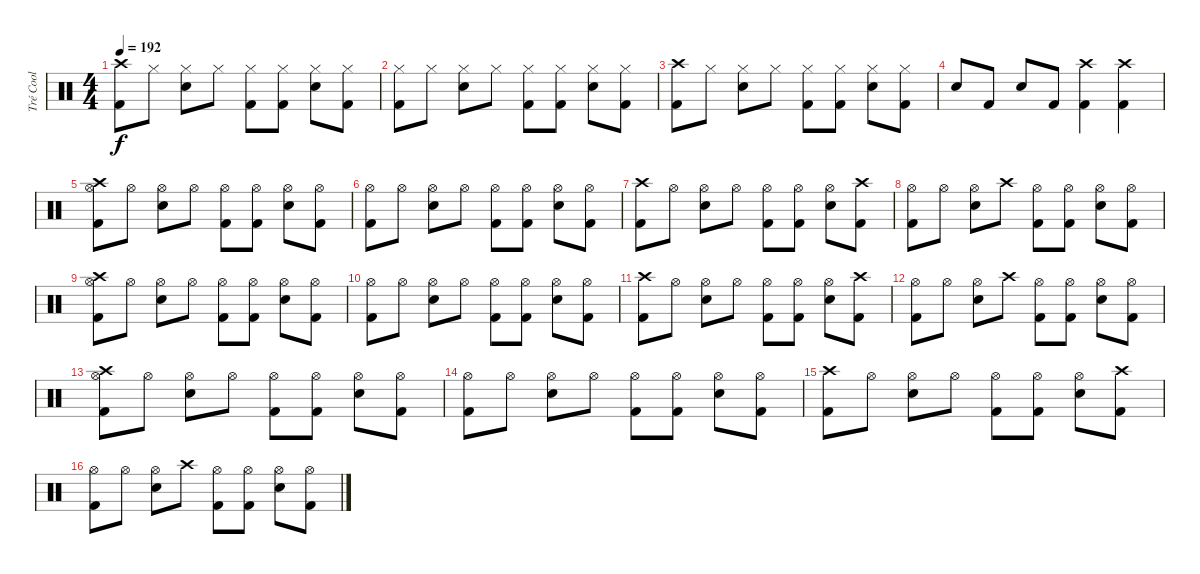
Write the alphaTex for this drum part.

\track ("Tré Cool" "Tré Cool") {solo instrument percussion}
\staff {score}
\articulation defaults
\ts (4 4)
\tempo 192
\clef neutral
\ks c
("Kick (hit) 2" "Crash high (hit)").8{dy f} "Hi-Hat (closed)".8 ("Hi-Hat (closed)" "Electric Snare (hit)").8 "Hi-Hat (closed)".8 ("Hi-Hat (closed)" "Kick (hit) 2").8 ("Hi-Hat (closed)" "Kick (hit) 2").8 ("Hi-Hat (closed)" "Electric Snare (hit)").8 ("Hi-Hat (closed)" "Kick (hit) 2").8 |
("Hi-Hat (closed)" "Kick (hit) 2").8 "Hi-Hat (closed)".8 ("Hi-Hat (closed)" "Electric Snare (hit)").8 "Hi-Hat (closed)".8 ("Hi-Hat (closed)" "Kick (hit) 2").8 ("Hi-Hat (closed)" "Kick (hit) 2").8 ("Hi-Hat (closed)" "Electric Snare (hit)").8 ("Hi-Hat (closed)" "Kick (hit) 2").8 |
("Kick (hit) 2" "Crash high (hit)").8 "Hi-Hat (closed)".8 ("Hi-Hat (closed)" "Electric Snare (hit)").8 "Hi-Hat (closed)".8 ("Hi-Hat (closed)" "Kick (hit) 2").8 ("Hi-Hat (closed)" "Kick (hit) 2").8 ("Hi-Hat (closed)" "Electric Snare (hit)").8 ("Hi-Hat (closed)" "Kick (hit) 2").8 |
"Electric Snare (hit)".8 "Kick (hit) 2".8 "Electric Snare (hit)".8 "Kick (hit) 2".8 ("Kick (hit) 2" "Crash high (hit)").4 ("Kick (hit) 2" "Crash high (hit)").4 |
("Hi-Hat (open)" "Kick (hit) 2" "Crash high (hit)").8 "Hi-Hat (open)".8 ("Hi-Hat (open)" "Electric Snare (hit)").8 "Hi-Hat (open)".8 ("Hi-Hat (open)" "Kick (hit) 2").8 ("Hi-Hat (open)" "Kick (hit) 2").8 ("Hi-Hat (open)" "Electric Snare (hit)").8 ("Hi-Hat (open)" "Kick (hit) 2").8 |
("Hi-Hat (open)" "Kick (hit) 2").8 "Hi-Hat (open)".8 ("Hi-Hat (open)" "Electric Snare (hit)").8 "Hi-Hat (open)".8 ("Hi-Hat (open)" "Kick (hit) 2").8 ("Hi-Hat (open)" "Kick (hit) 2").8 ("Hi-Hat (open)" "Electric Snare (hit)").8 ("Hi-Hat (open)" "Kick (hit) 2").8 |
("Kick (hit) 2" "Crash high (hit)").8 "Hi-Hat (open)".8 ("Hi-Hat (open)" "Electric Snare (hit)").8 "Hi-Hat (open)".8 ("Hi-Hat (open)" "Kick (hit) 2").8 ("Hi-Hat (open)" "Kick (hit) 2").8 ("Hi-Hat (open)" "Electric Snare (hit)").8 ("Kick (hit) 2" "Crash high (hit)").8 |
("Hi-Hat (open)" "Kick (hit) 2").8 "Hi-Hat (open)".8 ("Hi-Hat (open)" "Electric Snare (hit)").8 "Crash high (hit)".8 ("Hi-Hat (open)" "Kick (hit) 2").8 ("Hi-Hat (open)" "Kick (hit) 2").8 ("Hi-Hat (open)" "Electric Snare (hit)").8 ("Hi-Hat (open)" "Kick (hit) 2").8 |
("Hi-Hat (open)" "Kick (hit) 2" "Crash high (hit)").8 "Hi-Hat (open)".8 ("Hi-Hat (open)" "Electric Snare (hit)").8 "Hi-Hat (open)".8 ("Hi-Hat (open)" "Kick (hit) 2").8 ("Hi-Hat (open)" "Kick (hit) 2").8 ("Hi-Hat (open)" "Electric Snare (hit)").8 ("Hi-Hat (open)" "Kick (hit) 2").8 |
("Hi-Hat (open)" "Kick (hit) 2").8 "Hi-Hat (open)".8 ("Hi-Hat (open)" "Electric Snare (hit)").8 "Hi-Hat (open)".8 ("Hi-Hat (open)" "Kick (hit) 2").8 ("Hi-Hat (open)" "Kick (hit) 2").8 ("Hi-Hat (open)" "Electric Snare (hit)").8 ("Hi-Hat (open)" "Kick (hit) 2").8 |
("Kick (hit) 2" "Crash high (hit)").8 "Hi-Hat (open)".8 ("Hi-Hat (open)" "Electric Snare (hit)").8 "Hi-Hat (open)".8 ("Hi-Hat (open)" "Kick (hit) 2").8 ("Hi-Hat (open)" "Kick (hit) 2").8 ("Hi-Hat (open)" "Electric Snare (hit)").8 ("Kick (hit) 2" "Crash high (hit)").8 |
("Hi-Hat (open)" "Kick (hit) 2").8 "Hi-Hat (open)".8 ("Hi-Hat (open)" "Electric Snare (hit)").8 "Crash high (hit)".8 ("Hi-Hat (open)" "Kick (hit) 2").8 ("Hi-Hat (open)" "Kick (hit) 2").8 ("Hi-Hat (open)" "Electric Snare (hit)").8 ("Hi-Hat (open)" "Kick (hit) 2").8 |
("Hi-Hat (open)" "Kick (hit) 2" "Crash high (hit)").8 "Hi-Hat (open)".8 ("Hi-Hat (open)" "Electric Snare (hit)").8 "Hi-Hat (open)".8 ("Hi-Hat (open)" "Kick (hit) 2").8 ("Hi-Hat (open)" "Kick (hit) 2").8 ("Hi-Hat (open)" "Electric Snare (hit)").8 ("Hi-Hat (open)" "Kick (hit) 2").8 |
("Hi-Hat (open)" "Kick (hit) 2").8 "Hi-Hat (open)".8 ("Hi-Hat (open)" "Electric Snare (hit)").8 "Hi-Hat (open)".8 ("Hi-Hat (open)" "Kick (hit) 2").8 ("Hi-Hat (open)" "Kick (hit) 2").8 ("Hi-Hat (open)" "Electric Snare (hit)").8 ("Hi-Hat (open)" "Kick (hit) 2").8 |
("Kick (hit) 2" "Crash high (hit)").8 "Hi-Hat (open)".8 ("Hi-Hat (open)" "Electric Snare (hit)").8 "Hi-Hat (open)".8 ("Hi-Hat (open)" "Kick (hit) 2").8 ("Hi-Hat (open)" "Kick (hit) 2").8 ("Hi-Hat (open)" "Electric Snare (hit)").8 ("Kick (hit) 2" "Crash high (hit)").8 |
("Hi-Hat (open)" "Kick (hit) 2").8 "Hi-Hat (open)".8 ("Hi-Hat (open)" "Electric Snare (hit)").8 "Crash high (hit)".8 ("Hi-Hat (open)" "Kick (hit) 2").8 ("Hi-Hat (open)" "Kick (hit) 2").8 ("Hi-Hat (open)" "Electric Snare (hit)").8 ("Hi-Hat (open)" "Kick (hit) 2").8
